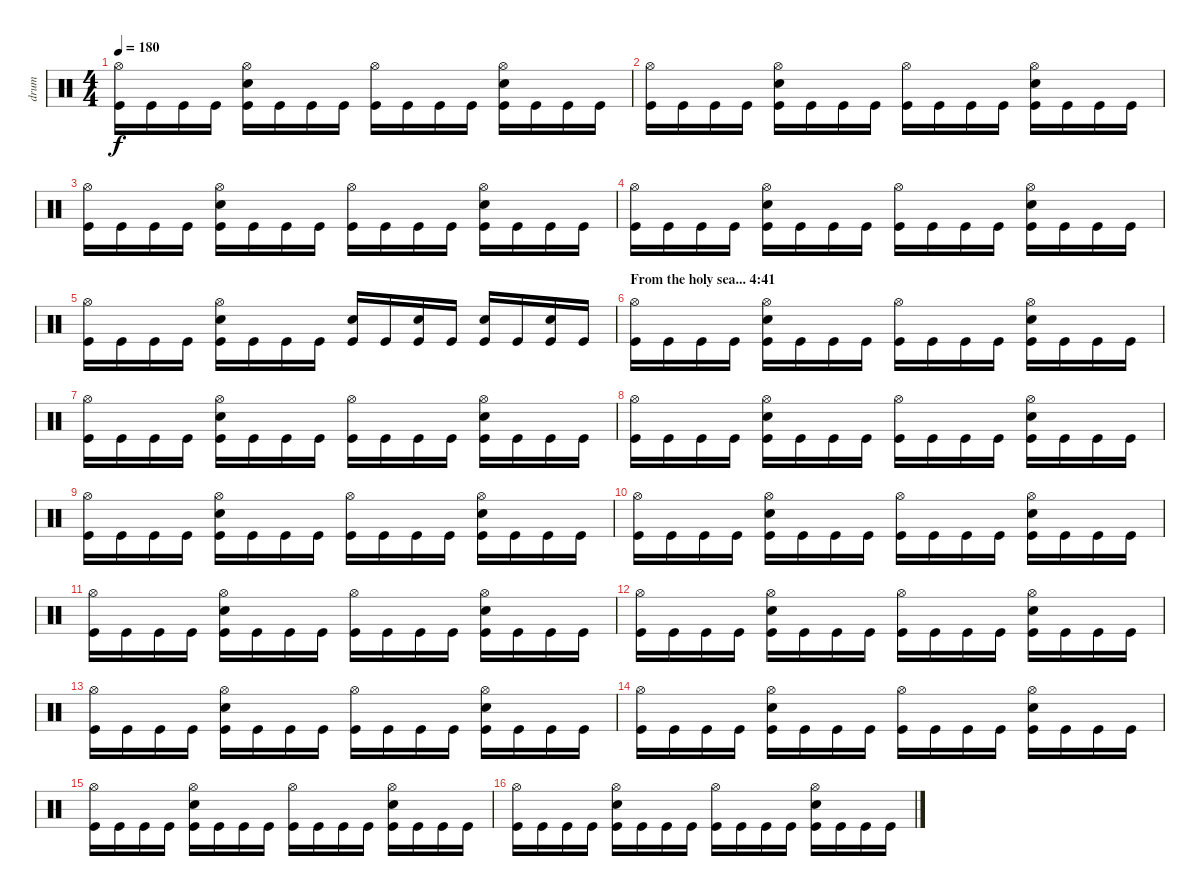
\track ("drum" "drum") {instrument percussion}
\staff {score}
\articulation defaults
\ts (4 4)
\tempo 180
\clef neutral
\ks c
("Hi-Hat (open)" "Kick (hit)").16{dy f} "Kick (hit)".16 "Kick (hit)".16 "Kick (hit)".16 ("Hi-Hat (open)" "Snare (hit) 2" "Kick (hit)").16 "Kick (hit)".16 "Kick (hit)".16 "Kick (hit)".16 ("Hi-Hat (open)" "Kick (hit)").16 "Kick (hit)".16 "Kick (hit)".16 "Kick (hit)".16 ("Hi-Hat (open)" "Snare (hit) 2" "Kick (hit)").16 "Kick (hit)".16 "Kick (hit)".16 "Kick (hit)".16 |
("Hi-Hat (open)" "Kick (hit)").16 "Kick (hit)".16 "Kick (hit)".16 "Kick (hit)".16 ("Hi-Hat (open)" "Snare (hit) 2" "Kick (hit)").16 "Kick (hit)".16 "Kick (hit)".16 "Kick (hit)".16 ("Hi-Hat (open)" "Kick (hit)").16 "Kick (hit)".16 "Kick (hit)".16 "Kick (hit)".16 ("Hi-Hat (open)" "Snare (hit) 2" "Kick (hit)").16 "Kick (hit)".16 "Kick (hit)".16 "Kick (hit)".16 |
("Hi-Hat (open)" "Kick (hit)").16 "Kick (hit)".16 "Kick (hit)".16 "Kick (hit)".16 ("Hi-Hat (open)" "Snare (hit) 2" "Kick (hit)").16 "Kick (hit)".16 "Kick (hit)".16 "Kick (hit)".16 ("Hi-Hat (open)" "Kick (hit)").16 "Kick (hit)".16 "Kick (hit)".16 "Kick (hit)".16 ("Hi-Hat (open)" "Snare (hit) 2" "Kick (hit)").16 "Kick (hit)".16 "Kick (hit)".16 "Kick (hit)".16 |
("Hi-Hat (open)" "Kick (hit)").16 "Kick (hit)".16 "Kick (hit)".16 "Kick (hit)".16 ("Hi-Hat (open)" "Snare (hit) 2" "Kick (hit)").16 "Kick (hit)".16 "Kick (hit)".16 "Kick (hit)".16 ("Hi-Hat (open)" "Kick (hit)").16 "Kick (hit)".16 "Kick (hit)".16 "Kick (hit)".16 ("Hi-Hat (open)" "Snare (hit) 2" "Kick (hit)").16 "Kick (hit)".16 "Kick (hit)".16 "Kick (hit)".16 |
("Hi-Hat (open)" "Kick (hit)").16 "Kick (hit)".16 "Kick (hit)".16 "Kick (hit)".16 ("Hi-Hat (open)" "Snare (hit) 2" "Kick (hit)").16 "Kick (hit)".16 "Kick (hit)".16 "Kick (hit)".16 ("Snare (hit) 2" "Kick (hit)").16 "Kick (hit)".16 ("Snare (hit) 2" "Kick (hit)").16 "Kick (hit)".16 ("Snare (hit) 2" "Kick (hit)").16 "Kick (hit)".16 ("Snare (hit) 2" "Kick (hit)").16 "Kick (hit)".16 |
\section ("" "From the holy sea... 4:41")
("Hi-Hat (open)" "Kick (hit)").16 "Kick (hit)".16 "Kick (hit)".16 "Kick (hit)".16 ("Hi-Hat (open)" "Snare (hit) 2" "Kick (hit)").16 "Kick (hit)".16 "Kick (hit)".16 "Kick (hit)".16 ("Hi-Hat (open)" "Kick (hit)").16 "Kick (hit)".16 "Kick (hit)".16 "Kick (hit)".16 ("Hi-Hat (open)" "Snare (hit) 2" "Kick (hit)").16 "Kick (hit)".16 "Kick (hit)".16 "Kick (hit)".16 |
("Hi-Hat (open)" "Kick (hit)").16 "Kick (hit)".16 "Kick (hit)".16 "Kick (hit)".16 ("Hi-Hat (open)" "Snare (hit) 2" "Kick (hit)").16 "Kick (hit)".16 "Kick (hit)".16 "Kick (hit)".16 ("Hi-Hat (open)" "Kick (hit)").16 "Kick (hit)".16 "Kick (hit)".16 "Kick (hit)".16 ("Hi-Hat (open)" "Snare (hit) 2" "Kick (hit)").16 "Kick (hit)".16 "Kick (hit)".16 "Kick (hit)".16 |
("Hi-Hat (open)" "Kick (hit)").16 "Kick (hit)".16 "Kick (hit)".16 "Kick (hit)".16 ("Hi-Hat (open)" "Snare (hit) 2" "Kick (hit)").16 "Kick (hit)".16 "Kick (hit)".16 "Kick (hit)".16 ("Hi-Hat (open)" "Kick (hit)").16 "Kick (hit)".16 "Kick (hit)".16 "Kick (hit)".16 ("Hi-Hat (open)" "Snare (hit) 2" "Kick (hit)").16 "Kick (hit)".16 "Kick (hit)".16 "Kick (hit)".16 |
("Hi-Hat (open)" "Kick (hit)").16 "Kick (hit)".16 "Kick (hit)".16 "Kick (hit)".16 ("Hi-Hat (open)" "Snare (hit) 2" "Kick (hit)").16 "Kick (hit)".16 "Kick (hit)".16 "Kick (hit)".16 ("Hi-Hat (open)" "Kick (hit)").16 "Kick (hit)".16 "Kick (hit)".16 "Kick (hit)".16 ("Hi-Hat (open)" "Snare (hit) 2" "Kick (hit)").16 "Kick (hit)".16 "Kick (hit)".16 "Kick (hit)".16 |
("Hi-Hat (open)" "Kick (hit)").16 "Kick (hit)".16 "Kick (hit)".16 "Kick (hit)".16 ("Hi-Hat (open)" "Snare (hit) 2" "Kick (hit)").16 "Kick (hit)".16 "Kick (hit)".16 "Kick (hit)".16 ("Hi-Hat (open)" "Kick (hit)").16 "Kick (hit)".16 "Kick (hit)".16 "Kick (hit)".16 ("Hi-Hat (open)" "Snare (hit) 2" "Kick (hit)").16 "Kick (hit)".16 "Kick (hit)".16 "Kick (hit)".16 |
("Hi-Hat (open)" "Kick (hit)").16 "Kick (hit)".16 "Kick (hit)".16 "Kick (hit)".16 ("Hi-Hat (open)" "Snare (hit) 2" "Kick (hit)").16 "Kick (hit)".16 "Kick (hit)".16 "Kick (hit)".16 ("Hi-Hat (open)" "Kick (hit)").16 "Kick (hit)".16 "Kick (hit)".16 "Kick (hit)".16 ("Hi-Hat (open)" "Snare (hit) 2" "Kick (hit)").16 "Kick (hit)".16 "Kick (hit)".16 "Kick (hit)".16 |
("Hi-Hat (open)" "Kick (hit)").16 "Kick (hit)".16 "Kick (hit)".16 "Kick (hit)".16 ("Hi-Hat (open)" "Snare (hit) 2" "Kick (hit)").16 "Kick (hit)".16 "Kick (hit)".16 "Kick (hit)".16 ("Hi-Hat (open)" "Kick (hit)").16 "Kick (hit)".16 "Kick (hit)".16 "Kick (hit)".16 ("Hi-Hat (open)" "Snare (hit) 2" "Kick (hit)").16 "Kick (hit)".16 "Kick (hit)".16 "Kick (hit)".16 |
("Hi-Hat (open)" "Kick (hit)").16 "Kick (hit)".16 "Kick (hit)".16 "Kick (hit)".16 ("Hi-Hat (open)" "Snare (hit) 2" "Kick (hit)").16 "Kick (hit)".16 "Kick (hit)".16 "Kick (hit)".16 ("Hi-Hat (open)" "Kick (hit)").16 "Kick (hit)".16 "Kick (hit)".16 "Kick (hit)".16 ("Hi-Hat (open)" "Snare (hit) 2" "Kick (hit)").16 "Kick (hit)".16 "Kick (hit)".16 "Kick (hit)".16 |
("Hi-Hat (open)" "Kick (hit)").16 "Kick (hit)".16 "Kick (hit)".16 "Kick (hit)".16 ("Hi-Hat (open)" "Snare (hit) 2" "Kick (hit)").16 "Kick (hit)".16 "Kick (hit)".16 "Kick (hit)".16 ("Hi-Hat (open)" "Kick (hit)").16 "Kick (hit)".16 "Kick (hit)".16 "Kick (hit)".16 ("Hi-Hat (open)" "Snare (hit) 2" "Kick (hit)").16 "Kick (hit)".16 "Kick (hit)".16 "Kick (hit)".16 |
("Hi-Hat (open)" "Kick (hit)").16 "Kick (hit)".16 "Kick (hit)".16 "Kick (hit)".16 ("Hi-Hat (open)" "Snare (hit) 2" "Kick (hit)").16 "Kick (hit)".16 "Kick (hit)".16 "Kick (hit)".16 ("Hi-Hat (open)" "Kick (hit)").16 "Kick (hit)".16 "Kick (hit)".16 "Kick (hit)".16 ("Hi-Hat (open)" "Snare (hit) 2" "Kick (hit)").16 "Kick (hit)".16 "Kick (hit)".16 "Kick (hit)".16 |
("Hi-Hat (open)" "Kick (hit)").16 "Kick (hit)".16 "Kick (hit)".16 "Kick (hit)".16 ("Hi-Hat (open)" "Snare (hit) 2" "Kick (hit)").16 "Kick (hit)".16 "Kick (hit)".16 "Kick (hit)".16 ("Hi-Hat (open)" "Kick (hit)").16 "Kick (hit)".16 "Kick (hit)".16 "Kick (hit)".16 ("Hi-Hat (open)" "Snare (hit) 2" "Kick (hit)").16 "Kick (hit)".16 "Kick (hit)".16 "Kick (hit)".16
